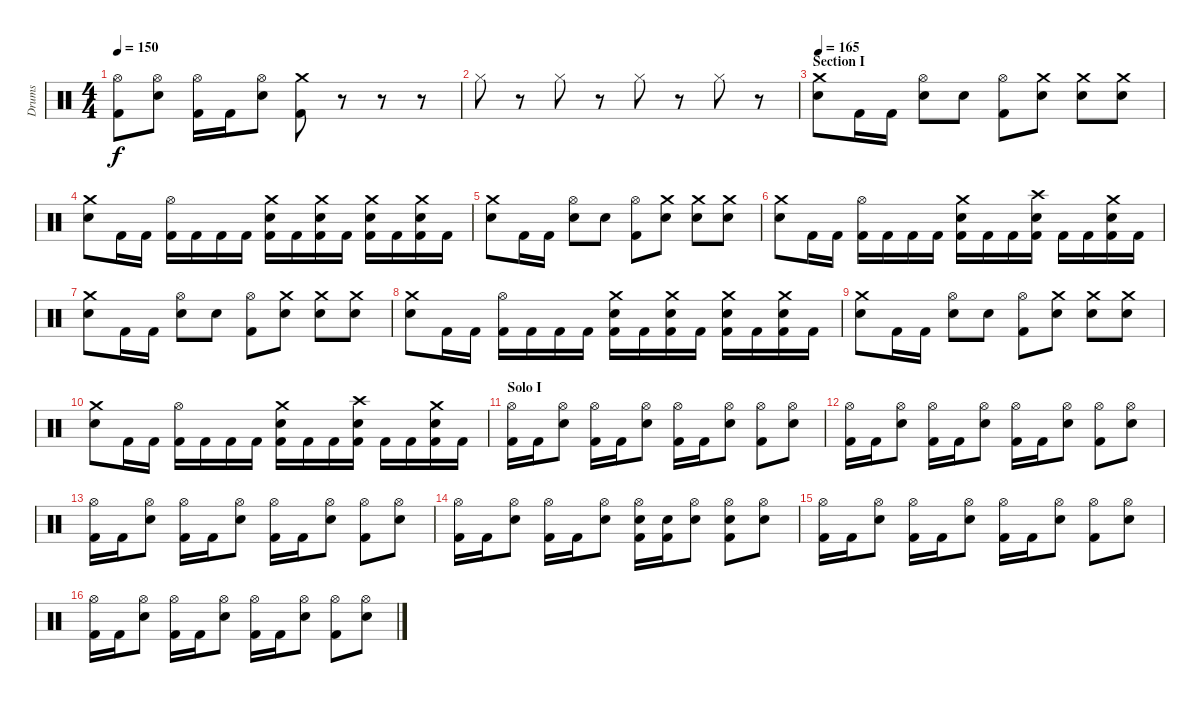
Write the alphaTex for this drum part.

\track ("Drums" "Drums") {instrument percussion}
\staff {score}
\articulation defaults
\ts (4 4)
\tempo 150
\clef neutral
\ks c
("Hi-Hat (open)" "Kick (hit) 2").8{dy f} ("Hi-Hat (open)" "Snare (hit) 2").8 ("Hi-Hat (open)" "Kick (hit) 2").16 "Kick (hit) 2".16 ("Hi-Hat (open)" "Snare (hit) 2").8 ("Crash medium (hit)" "Kick (hit) 2").8 r.8 r.8 r.8 |
"Hi-Hat (closed)".8 r.8 "Hi-Hat (closed)".8 r.8 "Hi-Hat (closed)".8 r.8 "Hi-Hat (closed)".8 r.8 |
\section ("" "Section I")
\tempo 165
("Crash medium (hit)" "Snare (hit) 2").8 "Kick (hit) 2".16 "Kick (hit) 2".16 ("Hi-Hat (open)" "Snare (hit) 2").8 "Snare (hit) 2".8 ("Hi-Hat (open)" "Kick (hit) 2").8 ("Crash medium (hit)" "Snare (hit) 2").8 ("Crash medium (hit)" "Snare (hit) 2").8 ("Crash medium (hit)" "Snare (hit) 2").8 |
("Crash medium (hit)" "Snare (hit) 2").8 "Kick (hit) 2".16 "Kick (hit) 2".16 ("Hi-Hat (open)" "Kick (hit) 2").16 "Kick (hit) 2".16 "Kick (hit) 2".16 "Kick (hit) 2".16 ("Crash medium (hit)" "Snare (hit) 2" "Kick (hit) 2").16 "Kick (hit) 2".16 ("Crash medium (hit)" "Snare (hit) 2" "Kick (hit) 2").16 "Kick (hit) 2".16 ("Crash medium (hit)" "Snare (hit) 2" "Kick (hit) 2").16 "Kick (hit) 2".16 ("Crash medium (hit)" "Snare (hit) 2" "Kick (hit) 2").16 "Kick (hit) 2".16 |
("Crash medium (hit)" "Snare (hit) 2").8 "Kick (hit) 2".16 "Kick (hit) 2".16 ("Hi-Hat (open)" "Snare (hit) 2").8 "Snare (hit) 2".8 ("Hi-Hat (open)" "Kick (hit) 2").8 ("Crash medium (hit)" "Snare (hit) 2").8 ("Crash medium (hit)" "Snare (hit) 2").8 ("Crash medium (hit)" "Snare (hit) 2").8 |
("Crash medium (hit)" "Snare (hit) 2").8 "Kick (hit) 2".16 "Kick (hit) 2".16 ("Hi-Hat (open)" "Kick (hit) 2").16 "Kick (hit) 2".16 "Kick (hit) 2".16 "Kick (hit) 2".16 ("Crash medium (hit)" "Snare (hit) 2" "Kick (hit) 2").16 "Kick (hit) 2".16 "Kick (hit) 2".16 ("Crash high (hit)" "Snare (hit) 2" "Kick (hit) 2").16 "Kick (hit) 2".16 "Kick (hit) 2".16 ("Crash medium (hit)" "Snare (hit) 2" "Kick (hit) 2").16 "Kick (hit) 2".16 |
("Crash medium (hit)" "Snare (hit) 2").8 "Kick (hit) 2".16 "Kick (hit) 2".16 ("Hi-Hat (open)" "Snare (hit) 2").8 "Snare (hit) 2".8 ("Hi-Hat (open)" "Kick (hit) 2").8 ("Crash medium (hit)" "Snare (hit) 2").8 ("Crash medium (hit)" "Snare (hit) 2").8 ("Crash medium (hit)" "Snare (hit) 2").8 |
("Crash medium (hit)" "Snare (hit) 2").8 "Kick (hit) 2".16 "Kick (hit) 2".16 ("Hi-Hat (open)" "Kick (hit) 2").16 "Kick (hit) 2".16 "Kick (hit) 2".16 "Kick (hit) 2".16 ("Crash medium (hit)" "Snare (hit) 2" "Kick (hit) 2").16 "Kick (hit) 2".16 ("Crash medium (hit)" "Snare (hit) 2" "Kick (hit) 2").16 "Kick (hit) 2".16 ("Crash medium (hit)" "Snare (hit) 2" "Kick (hit) 2").16 "Kick (hit) 2".16 ("Crash medium (hit)" "Snare (hit) 2" "Kick (hit) 2").16 "Kick (hit) 2".16 |
("Crash medium (hit)" "Snare (hit) 2").8 "Kick (hit) 2".16 "Kick (hit) 2".16 ("Hi-Hat (open)" "Snare (hit) 2").8 "Snare (hit) 2".8 ("Hi-Hat (open)" "Kick (hit) 2").8 ("Crash medium (hit)" "Snare (hit) 2").8 ("Crash medium (hit)" "Snare (hit) 2").8 ("Crash medium (hit)" "Snare (hit) 2").8 |
("Crash medium (hit)" "Snare (hit) 2").8 "Kick (hit) 2".16 "Kick (hit) 2".16 ("Hi-Hat (open)" "Kick (hit) 2").16 "Kick (hit) 2".16 "Kick (hit) 2".16 "Kick (hit) 2".16 ("Crash medium (hit)" "Snare (hit) 2" "Kick (hit) 2").16 "Kick (hit) 2".16 "Kick (hit) 2".16 ("Crash high (hit)" "Snare (hit) 2" "Kick (hit) 2").16 "Kick (hit) 2".16 "Kick (hit) 2".16 ("Crash medium (hit)" "Snare (hit) 2" "Kick (hit) 2").16 "Kick (hit) 2".16 |
\section ("" "Solo I")
("Hi-Hat (open)" "Kick (hit) 2").16 "Kick (hit) 2".16 ("Hi-Hat (open)" "Snare (hit) 2").8 ("Hi-Hat (open)" "Kick (hit) 2").16 "Kick (hit) 2".16 ("Hi-Hat (open)" "Snare (hit) 2").8 ("Hi-Hat (open)" "Kick (hit) 2").16 "Kick (hit) 2".16 ("Hi-Hat (open)" "Snare (hit) 2").8 ("Hi-Hat (open)" "Kick (hit) 2").8 ("Hi-Hat (open)" "Snare (hit) 2").8 |
("Hi-Hat (open)" "Kick (hit) 2").16 "Kick (hit) 2".16 ("Hi-Hat (open)" "Snare (hit) 2").8 ("Hi-Hat (open)" "Kick (hit) 2").16 "Kick (hit) 2".16 ("Hi-Hat (open)" "Snare (hit) 2").8 ("Hi-Hat (open)" "Kick (hit) 2").16 "Kick (hit) 2".16 ("Hi-Hat (open)" "Snare (hit) 2").8 ("Hi-Hat (open)" "Kick (hit) 2").8 ("Hi-Hat (open)" "Snare (hit) 2").8 |
("Hi-Hat (open)" "Kick (hit) 2").16 "Kick (hit) 2".16 ("Hi-Hat (open)" "Snare (hit) 2").8 ("Hi-Hat (open)" "Kick (hit) 2").16 "Kick (hit) 2".16 ("Hi-Hat (open)" "Snare (hit) 2").8 ("Hi-Hat (open)" "Kick (hit) 2").16 "Kick (hit) 2".16 ("Hi-Hat (open)" "Snare (hit) 2").8 ("Hi-Hat (open)" "Kick (hit) 2").8 ("Hi-Hat (open)" "Snare (hit) 2").8 |
("Hi-Hat (open)" "Kick (hit) 2").16 "Kick (hit) 2".16 ("Hi-Hat (open)" "Snare (hit) 2").8 ("Hi-Hat (open)" "Kick (hit) 2").16 "Kick (hit) 2".16 ("Hi-Hat (open)" "Snare (hit) 2").8 ("Hi-Hat (open)" "Snare (hit) 2" "Kick (hit) 2").16 ("Snare (hit) 2" "Kick (hit) 2").16 ("Hi-Hat (open)" "Snare (hit) 2").8 ("Hi-Hat (open)" "Snare (hit) 2" "Kick (hit) 2").8 ("Hi-Hat (open)" "Snare (hit) 2").8 |
("Hi-Hat (open)" "Kick (hit) 2").16 "Kick (hit) 2".16 ("Hi-Hat (open)" "Snare (hit) 2").8 ("Hi-Hat (open)" "Kick (hit) 2").16 "Kick (hit) 2".16 ("Hi-Hat (open)" "Snare (hit) 2").8 ("Hi-Hat (open)" "Kick (hit) 2").16 "Kick (hit) 2".16 ("Hi-Hat (open)" "Snare (hit) 2").8 ("Hi-Hat (open)" "Kick (hit) 2").8 ("Hi-Hat (open)" "Snare (hit) 2").8 |
("Hi-Hat (open)" "Kick (hit) 2").16 "Kick (hit) 2".16 ("Hi-Hat (open)" "Snare (hit) 2").8 ("Hi-Hat (open)" "Kick (hit) 2").16 "Kick (hit) 2".16 ("Hi-Hat (open)" "Snare (hit) 2").8 ("Hi-Hat (open)" "Kick (hit) 2").16 "Kick (hit) 2".16 ("Hi-Hat (open)" "Snare (hit) 2").8 ("Hi-Hat (open)" "Kick (hit) 2").8 ("Hi-Hat (open)" "Snare (hit) 2").8
